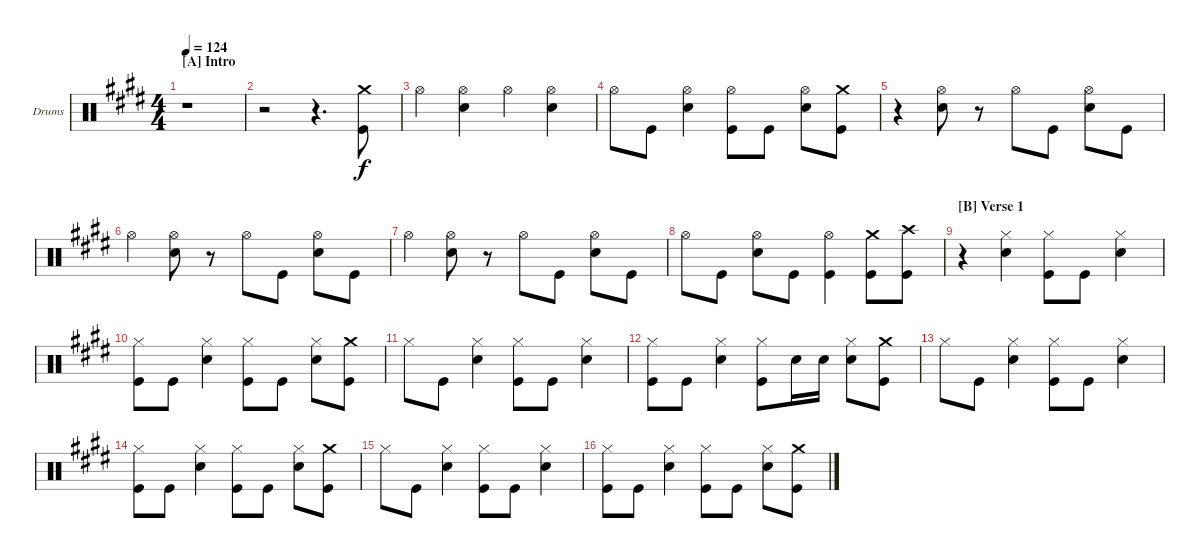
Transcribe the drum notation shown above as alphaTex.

\defaultSystemsLayout 4
\bracketExtendMode groupsimilarinstruments
\firstSystemTrackNameOrientation horizontal
\otherSystemsTrackNameOrientation horizontal
\track ("Drumkit" "Drums") {instrument percussion}
\staff {score}
\articulation defaults
\ts (4 4)
\section ("A" "Intro")
\tempo 124
\clef neutral
\ks e
r.1{dy f} |
r.2 r.4{d} ("Crash medium (hit)" "Kick (hit)").8 |
"Hi-Hat (open)".4 ("Hi-Hat (open)" "Snare (hit) 2").4 "Hi-Hat (open)".4 ("Hi-Hat (open)" "Snare (hit) 2").4 |
"Hi-Hat (open)".8 "Kick (hit)".8 ("Hi-Hat (open)" "Snare (hit) 2").4 ("Hi-Hat (open)" "Kick (hit)").8 "Kick (hit)".8 ("Hi-Hat (open)" "Snare (hit) 2").8 ("Crash medium (hit)" "Kick (hit)").8 |
r.4 ("Hi-Hat (open)" "Snare (hit) 2").8 r.8 "Hi-Hat (open)".8 "Kick (hit)".8 ("Hi-Hat (open)" "Snare (hit) 2").8 "Kick (hit)".8 |
"Hi-Hat (open)".4 ("Hi-Hat (open)" "Snare (hit) 2").8 r.8 "Hi-Hat (open)".8 "Kick (hit)".8 ("Hi-Hat (open)" "Snare (hit) 2").8 "Kick (hit)".8 |
"Hi-Hat (open)".4 ("Hi-Hat (open)" "Snare (hit) 2").8 r.8 "Hi-Hat (open)".8 "Kick (hit)".8 ("Hi-Hat (open)" "Snare (hit) 2").8 "Kick (hit)".8 |
"Hi-Hat (open)".8 "Kick (hit)".8 ("Hi-Hat (open)" "Snare (hit) 2").8 "Kick (hit)".8 ("Hi-Hat (open)" "Kick (hit)").4 ("Crash medium (hit)" "Kick (hit)").8 ("Crash high (hit)" "Kick (hit)").8 |
\section ("B" "Verse 1")
r.4 ("Hi-Hat (closed)" "Snare (hit) 2").4 ("Hi-Hat (closed)" "Kick (hit)").8 "Kick (hit)".8 ("Hi-Hat (closed)" "Snare (hit) 2").4 |
("Hi-Hat (closed)" "Kick (hit)").8 "Kick (hit)".8 ("Hi-Hat (closed)" "Snare (hit) 2").4 ("Hi-Hat (closed)" "Kick (hit)").8 "Kick (hit)".8 ("Hi-Hat (closed)" "Snare (hit) 2").8 ("Crash medium (hit)" "Kick (hit)").8 |
"Hi-Hat (closed)".8 "Kick (hit)".8 ("Hi-Hat (closed)" "Snare (hit) 2").4 ("Hi-Hat (closed)" "Kick (hit)").8 "Kick (hit)".8 ("Hi-Hat (closed)" "Snare (hit) 2").4 |
("Hi-Hat (closed)" "Kick (hit)").8 "Kick (hit)".8 ("Hi-Hat (closed)" "Snare (hit) 2").4 ("Hi-Hat (closed)" "Kick (hit)").8 "Snare (hit) 2".16 "Snare (hit) 2".16 ("Hi-Hat (closed)" "Snare (hit) 2").8 ("Crash medium (hit)" "Kick (hit)").8 |
"Hi-Hat (closed)".8 "Kick (hit)".8 ("Hi-Hat (closed)" "Snare (hit) 2").4 ("Hi-Hat (closed)" "Kick (hit)").8 "Kick (hit)".8 ("Hi-Hat (closed)" "Snare (hit) 2").4 |
("Hi-Hat (closed)" "Kick (hit)").8 "Kick (hit)".8 ("Hi-Hat (closed)" "Snare (hit) 2").4 ("Hi-Hat (closed)" "Kick (hit)").8 "Kick (hit)".8 ("Hi-Hat (closed)" "Snare (hit) 2").8 ("Crash medium (hit)" "Kick (hit)").8 |
"Hi-Hat (closed)".8 "Kick (hit)".8 ("Hi-Hat (closed)" "Snare (hit) 2").4 ("Hi-Hat (closed)" "Kick (hit)").8 "Kick (hit)".8 ("Hi-Hat (closed)" "Snare (hit) 2").4 |
("Hi-Hat (closed)" "Kick (hit)").8 "Kick (hit)".8 ("Hi-Hat (closed)" "Snare (hit) 2").4 ("Hi-Hat (closed)" "Kick (hit)").8 "Kick (hit)".8 ("Hi-Hat (closed)" "Snare (hit) 2").8 ("Crash medium (hit)" "Kick (hit)").8
